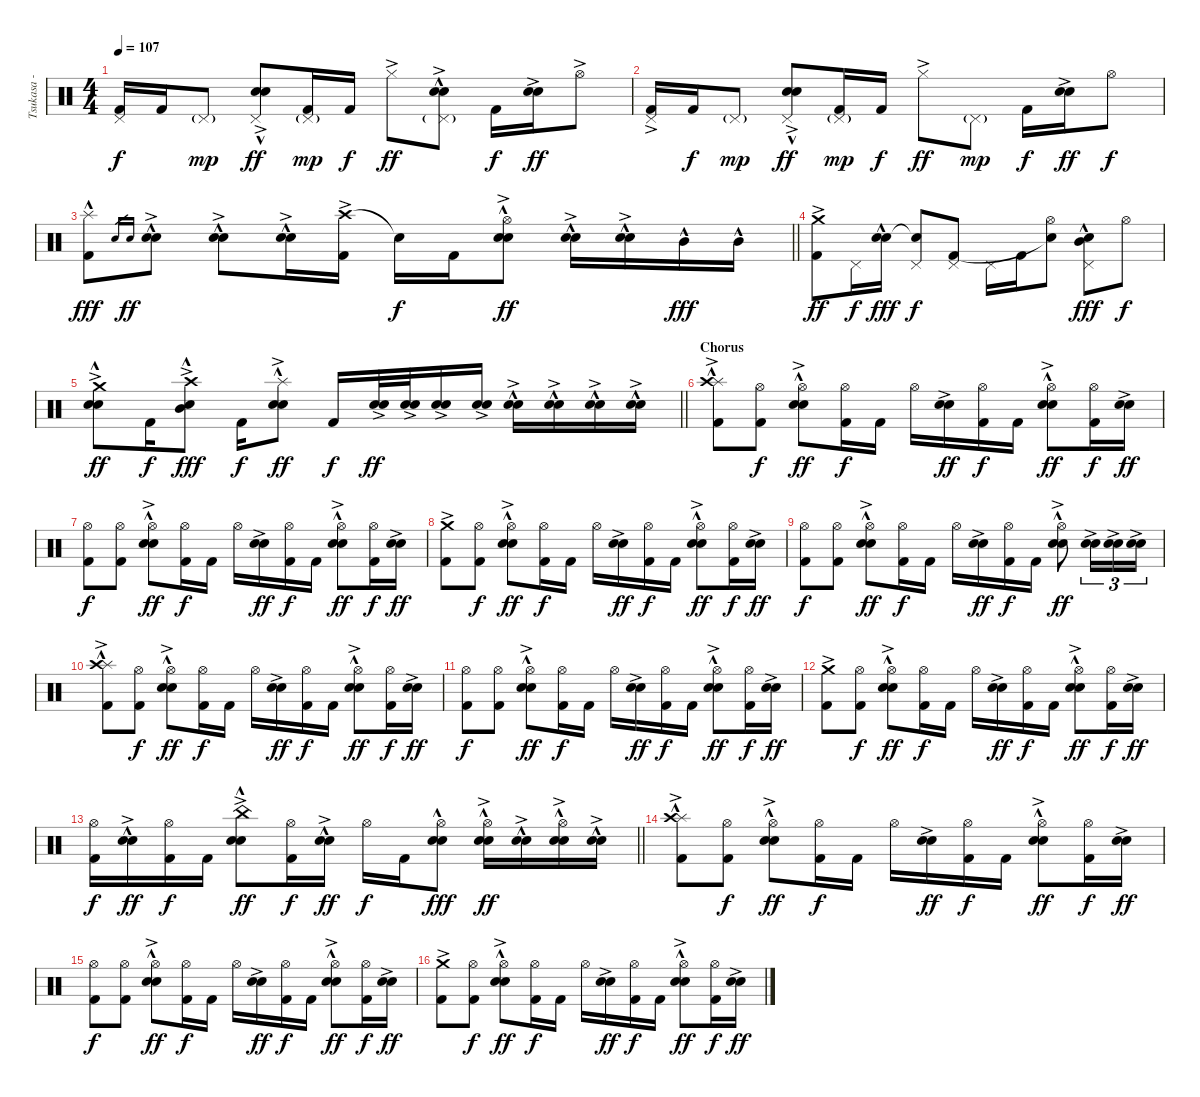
\track ("Tsukasa - Drums" "Tsukasa - ") {instrument percussion}
\staff {score}
\articulation defaults
\ts (4 4)
\tempo 107
\clef neutral
\ks c
("Pedal Hi-Hat (hit)" "Kick (hit) 2").16{dy f} "Kick (hit) 2".16 "Pedal Hi-Hat (hit)"{g}.8{dy mp} ("Pedal Hi-Hat (hit)"{ac} "Electric Snare (hit)"{hac} "Snare (hit) 2"{ac}).8{dy ff} ("Pedal Hi-Hat (hit)"{g} "Kick (hit) 2").16{dy mp} "Kick (hit) 2".16{dy f} "Hi-Hat (closed)"{ac}.8{dy ff} ("Pedal Hi-Hat (hit)"{g} "Electric Snare (hit)"{hac} "Snare (hit) 2"{ac}).8 "Kick (hit) 2".16{dy f} ("Electric Snare (hit)"{ac} "Snare (hit) 2"{ac}).16{dy ff} "Hi-Hat (open)"{ac}.8 |
("Pedal Hi-Hat (hit)"{ac} "Kick (hit) 2").16 "Kick (hit) 2".16{dy f} "Pedal Hi-Hat (hit)"{g}.8{dy mp} ("Pedal Hi-Hat (hit)"{ac} "Electric Snare (hit)"{hac} "Snare (hit) 2"{ac}).8{dy ff} ("Pedal Hi-Hat (hit)"{g} "Kick (hit) 2").16{dy mp} "Kick (hit) 2".16{dy f} "Hi-Hat (closed)"{ac}.8{dy ff} "Pedal Hi-Hat (hit)"{g}.8{dy mp} "Kick (hit) 2".16{dy f} ("Electric Snare (hit)"{ac} "Snare (hit) 2"{ac}).16{dy ff} "Hi-Hat (open)".8{dy f} |
\barLineRight lightlight
("Splash (hit)"{hac} "Kick (hit) 2").8{dy fff} "Electric Snare (hit)".16{gr} "Snare (hit) 2".16{gr dy ff} ("Electric Snare (hit)"{hac} "Snare (hit) 2"{ac}).8 ("Electric Snare (hit)"{hac} "Snare (hit) 2"{ac}).8 ("Electric Snare (hit)"{hac} "Snare (hit) 2"{ac}).16 ("Crash high (hit)"{ac} "Kick (hit) 2").16 "Snare (hit)"{t}.16{dy f} "Kick (hit) 2".16 ("Hi-Hat (open)" "Electric Snare (hit)"{hac} "Snare (hit) 2"{ac}).8{dy ff} ("Electric Snare (hit)"{hac} "Snare (hit) 2"{ac}).16 ("Electric Snare (hit)"{hac} "Snare (hit) 2"{ac}).16 "Mid Tom (hit)"{hac}.16{dy fff} "Mid Tom (hit)"{hac}.16 |
("Crash medium (hit)"{ac} "Kick (hit) 2").8{dy ff} "Pedal Hi-Hat (hit)".16{dy f} ("Electric Snare (hit)" "Snare (hit) 2"{hac}).16{dy fff} ("Pedal Hi-Hat (hit)" "Snare (hit)"{t}).8{dy f} ("Pedal Hi-Hat (hit)" "Kick (hit) 2").8 "Pedal Hi-Hat (hit)".16 "Kick (hit) 2".16 ("Hi-Hat (open)" "Snare (hit)"{t}).8 ("Pedal Hi-Hat (hit)" "Electric Snare (hit)"{hac} "Mid Tom (hit)"{hac}).8{dy fff} "Hi-Hat (open)".8{dy f} |
\barLineRight lightlight
("Crash medium (hit)"{ac} "Electric Snare (hit)"{hac} "Snare (hit) 2"{ac}).8{dy ff} "Kick (hit) 2".16{dy f} ("Crash high (hit)"{ac} "Electric Snare (hit)"{hac} "Mid Tom (hit)"{hac}).8{dy fff} "Kick (hit) 2".16{dy f} ("Splash (hit)"{hac} "Electric Snare (hit)"{hac} "Snare (hit) 2"{ac}).8{dy ff} "Kick (hit) 2".16{dy f} ("Electric Snare (hit)"{ac} "Snare (hit) 2"{ac}).32{dy ff} ("Electric Snare (hit)"{ac} "Snare (hit) 2"{ac}).32 ("Electric Snare (hit)"{ac} "Snare (hit) 2"{ac}).16 ("Electric Snare (hit)"{ac} "Snare (hit) 2"{ac}).16 ("Electric Snare (hit)"{hac} "Snare (hit) 2"{ac}).16 ("Electric Snare (hit)"{hac} "Snare (hit) 2"{ac}).16 ("Electric Snare (hit)"{hac} "Snare (hit) 2"{ac}).16 ("Electric Snare (hit)"{hac} "Snare (hit) 2"{ac}).16 |
\section ("" "Chorus")
("Splash (hit)"{hac} "Crash high (hit)"{ac} "Kick (hit) 2").8 ("Hi-Hat (open)" "Kick (hit) 2").8{dy f} ("Hi-Hat (open)" "Electric Snare (hit)"{hac} "Snare (hit) 2"{ac}).8{dy ff} ("Hi-Hat (open)" "Kick (hit) 2").16{dy f} "Kick (hit) 2".16 "Hi-Hat (open)".16 ("Electric Snare (hit)"{ac} "Snare (hit) 2").16{dy ff} ("Hi-Hat (open)" "Kick (hit) 2").16{dy f} "Kick (hit) 2".16 ("Hi-Hat (open)" "Electric Snare (hit)"{hac} "Snare (hit) 2"{ac}).8{dy ff} ("Hi-Hat (open)" "Kick (hit) 2").16{dy f} ("Electric Snare (hit)"{ac} "Snare (hit) 2").16{dy ff} |
("Hi-Hat (open)" "Kick (hit) 2").8{dy f} ("Hi-Hat (open)" "Kick (hit) 2").8 ("Hi-Hat (open)" "Electric Snare (hit)"{hac} "Snare (hit) 2"{ac}).8{dy ff} ("Hi-Hat (open)" "Kick (hit) 2").16{dy f} "Kick (hit) 2".16 "Hi-Hat (open)".16 ("Electric Snare (hit)"{ac} "Snare (hit) 2").16{dy ff} ("Hi-Hat (open)" "Kick (hit) 2").16{dy f} "Kick (hit) 2".16 ("Hi-Hat (open)" "Electric Snare (hit)"{hac} "Snare (hit) 2"{ac}).8{dy ff} ("Hi-Hat (open)" "Kick (hit) 2").16{dy f} ("Electric Snare (hit)"{ac} "Snare (hit) 2").16{dy ff} |
("Crash medium (hit)"{ac} "Kick (hit) 2").8 ("Hi-Hat (open)" "Kick (hit) 2").8{dy f} ("Hi-Hat (open)" "Electric Snare (hit)"{hac} "Snare (hit) 2"{ac}).8{dy ff} ("Hi-Hat (open)" "Kick (hit) 2").16{dy f} "Kick (hit) 2".16 "Hi-Hat (open)".16 ("Electric Snare (hit)"{ac} "Snare (hit) 2").16{dy ff} ("Hi-Hat (open)" "Kick (hit) 2").16{dy f} "Kick (hit) 2".16 ("Hi-Hat (open)" "Electric Snare (hit)"{hac} "Snare (hit) 2"{ac}).8{dy ff} ("Hi-Hat (open)" "Kick (hit) 2").16{dy f} ("Electric Snare (hit)"{ac} "Snare (hit) 2").16{dy ff} |
("Hi-Hat (open)" "Kick (hit) 2").8{dy f} ("Hi-Hat (open)" "Kick (hit) 2").8 ("Hi-Hat (open)" "Electric Snare (hit)"{hac} "Snare (hit) 2"{ac}).8{dy ff} ("Hi-Hat (open)" "Kick (hit) 2").16{dy f} "Kick (hit) 2".16 "Hi-Hat (open)".16 ("Electric Snare (hit)"{ac} "Snare (hit) 2").16{dy ff} ("Hi-Hat (open)" "Kick (hit) 2").16{dy f} "Kick (hit) 2".16 ("Hi-Hat (open)" "Electric Snare (hit)"{hac} "Snare (hit) 2"{ac}).8{dy ff} ("Electric Snare (hit)"{ac} "Snare (hit) 2"{ac}).16{tu (3 2)} ("Electric Snare (hit)"{ac} "Snare (hit) 2"{ac}).16{tu (3 2)} ("Electric Snare (hit)"{ac} "Snare (hit) 2"{ac}).16{tu (3 2)} |
("Splash (hit)"{hac} "Crash high (hit)"{ac} "Kick (hit) 2").8 ("Hi-Hat (open)" "Kick (hit) 2").8{dy f} ("Hi-Hat (open)" "Electric Snare (hit)"{hac} "Snare (hit) 2"{ac}).8{dy ff} ("Hi-Hat (open)" "Kick (hit) 2").16{dy f} "Kick (hit) 2".16 "Hi-Hat (open)".16 ("Electric Snare (hit)"{ac} "Snare (hit) 2").16{dy ff} ("Hi-Hat (open)" "Kick (hit) 2").16{dy f} "Kick (hit) 2".16 ("Hi-Hat (open)" "Electric Snare (hit)"{hac} "Snare (hit) 2"{ac}).8{dy ff} ("Hi-Hat (open)" "Kick (hit) 2").16{dy f} ("Electric Snare (hit)"{ac} "Snare (hit) 2").16{dy ff} |
("Hi-Hat (open)" "Kick (hit) 2").8{dy f} ("Hi-Hat (open)" "Kick (hit) 2").8 ("Hi-Hat (open)" "Electric Snare (hit)"{hac} "Snare (hit) 2"{ac}).8{dy ff} ("Hi-Hat (open)" "Kick (hit) 2").16{dy f} "Kick (hit) 2".16 "Hi-Hat (open)".16 ("Electric Snare (hit)"{ac} "Snare (hit) 2").16{dy ff} ("Hi-Hat (open)" "Kick (hit) 2").16{dy f} "Kick (hit) 2".16 ("Hi-Hat (open)" "Electric Snare (hit)"{hac} "Snare (hit) 2"{ac}).8{dy ff} ("Hi-Hat (open)" "Kick (hit) 2").16{dy f} ("Electric Snare (hit)"{ac} "Snare (hit) 2").16{dy ff} |
("Crash medium (hit)"{ac} "Kick (hit) 2").8 ("Hi-Hat (open)" "Kick (hit) 2").8{dy f} ("Hi-Hat (open)" "Electric Snare (hit)"{hac} "Snare (hit) 2"{ac}).8{dy ff} ("Hi-Hat (open)" "Kick (hit) 2").16{dy f} "Kick (hit) 2".16 "Hi-Hat (open)".16 ("Electric Snare (hit)"{ac} "Snare (hit) 2").16{dy ff} ("Hi-Hat (open)" "Kick (hit) 2").16{dy f} "Kick (hit) 2".16 ("Hi-Hat (open)" "Electric Snare (hit)"{hac} "Snare (hit) 2"{ac}).8{dy ff} ("Hi-Hat (open)" "Kick (hit) 2").16{dy f} ("Electric Snare (hit)"{ac} "Snare (hit) 2").16{dy ff} |
\barLineRight lightlight
("Hi-Hat (open)" "Kick (hit) 2").16{dy f} ("Electric Snare (hit)"{hac} "Snare (hit) 2"{ac}).16{dy ff} ("Hi-Hat (open)" "Kick (hit) 2").16{dy f} "Kick (hit) 2".16 ("China (hit)"{ac} "Electric Snare (hit)"{hac} "Snare (hit) 2"{ac}).8{dy ff} ("Hi-Hat (open)" "Kick (hit) 2").16{dy f} ("Electric Snare (hit)"{hac} "Snare (hit) 2"{ac}).16{dy ff} "Hi-Hat (open)".16{dy f} "Kick (hit) 2".16 ("Hi-Hat (open)" "Electric Snare (hit)"{hac} "Snare (hit) 2").8{dy fff} ("Hi-Hat (open)" "Electric Snare (hit)"{hac} "Snare (hit) 2"{ac}).16{dy ff} ("Electric Snare (hit)"{hac} "Snare (hit) 2"{ac}).16 ("Hi-Hat (open)" "Electric Snare (hit)"{hac} "Snare (hit) 2"{ac}).16 ("Electric Snare (hit)"{hac} "Snare (hit) 2"{ac}).16 |
\section ("" "")
("Splash (hit)"{hac} "Crash high (hit)"{ac} "Kick (hit) 2").8 ("Hi-Hat (open)" "Kick (hit) 2").8{dy f} ("Hi-Hat (open)" "Electric Snare (hit)"{hac} "Snare (hit) 2"{ac}).8{dy ff} ("Hi-Hat (open)" "Kick (hit) 2").16{dy f} "Kick (hit) 2".16 "Hi-Hat (open)".16 ("Electric Snare (hit)"{ac} "Snare (hit) 2").16{dy ff} ("Hi-Hat (open)" "Kick (hit) 2").16{dy f} "Kick (hit) 2".16 ("Hi-Hat (open)" "Electric Snare (hit)"{hac} "Snare (hit) 2"{ac}).8{dy ff} ("Hi-Hat (open)" "Kick (hit) 2").16{dy f} ("Electric Snare (hit)"{ac} "Snare (hit) 2").16{dy ff} |
("Hi-Hat (open)" "Kick (hit) 2").8{dy f} ("Hi-Hat (open)" "Kick (hit) 2").8 ("Hi-Hat (open)" "Electric Snare (hit)"{hac} "Snare (hit) 2"{ac}).8{dy ff} ("Hi-Hat (open)" "Kick (hit) 2").16{dy f} "Kick (hit) 2".16 "Hi-Hat (open)".16 ("Electric Snare (hit)"{ac} "Snare (hit) 2").16{dy ff} ("Hi-Hat (open)" "Kick (hit) 2").16{dy f} "Kick (hit) 2".16 ("Hi-Hat (open)" "Electric Snare (hit)"{hac} "Snare (hit) 2"{ac}).8{dy ff} ("Hi-Hat (open)" "Kick (hit) 2").16{dy f} ("Electric Snare (hit)"{ac} "Snare (hit) 2").16{dy ff} |
("Crash medium (hit)"{ac} "Kick (hit) 2").8 ("Hi-Hat (open)" "Kick (hit) 2").8{dy f} ("Hi-Hat (open)" "Electric Snare (hit)"{hac} "Snare (hit) 2"{ac}).8{dy ff} ("Hi-Hat (open)" "Kick (hit) 2").16{dy f} "Kick (hit) 2".16 "Hi-Hat (open)".16 ("Electric Snare (hit)"{ac} "Snare (hit) 2").16{dy ff} ("Hi-Hat (open)" "Kick (hit) 2").16{dy f} "Kick (hit) 2".16 ("Hi-Hat (open)" "Electric Snare (hit)"{hac} "Snare (hit) 2"{ac}).8{dy ff} ("Hi-Hat (open)" "Kick (hit) 2").16{dy f} ("Electric Snare (hit)"{ac} "Snare (hit) 2").16{dy ff}
